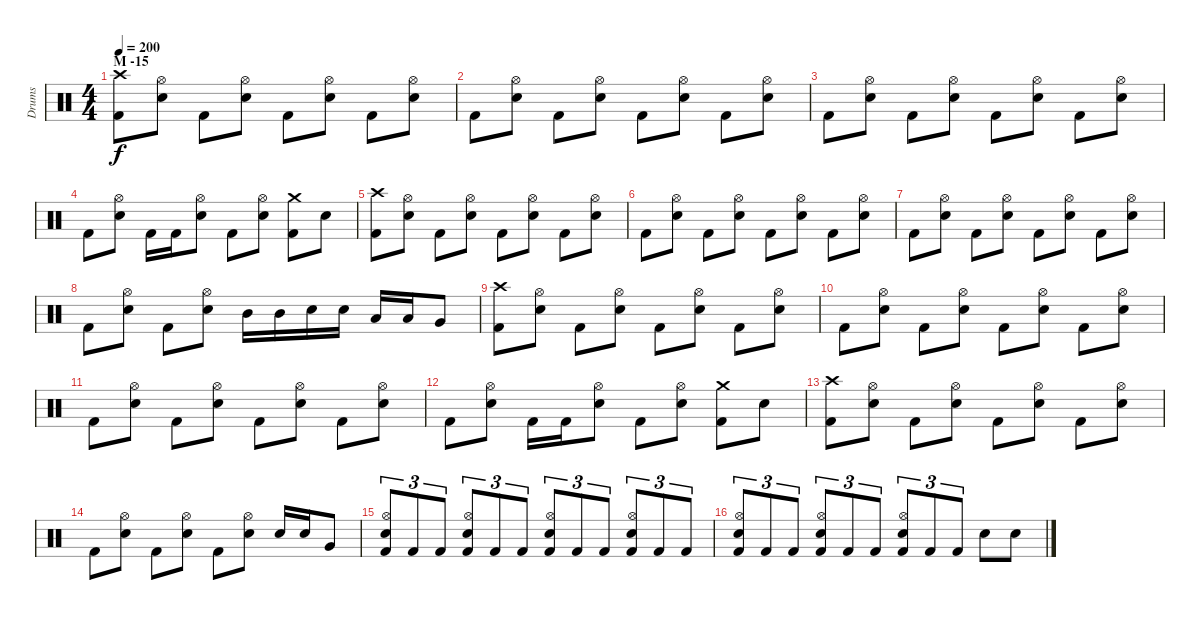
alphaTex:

\track ("Drums" "Drums") {instrument percussion}
\staff {score}
\articulation defaults
\ts (4 4)
\section ("" "M -15")
\tempo 200
\clef neutral
\ks c
("Crash high (hit)" "Kick (hit) 2").8{dy f} ("Hi-Hat (open)" "Snare (hit) 2").8 "Kick (hit) 2".8 ("Hi-Hat (open)" "Snare (hit) 2").8 "Kick (hit) 2".8 ("Hi-Hat (open)" "Snare (hit) 2").8 "Kick (hit) 2".8 ("Hi-Hat (open)" "Snare (hit) 2").8 |
"Kick (hit) 2".8 ("Hi-Hat (open)" "Snare (hit) 2").8 "Kick (hit) 2".8 ("Hi-Hat (open)" "Snare (hit) 2").8 "Kick (hit) 2".8 ("Hi-Hat (open)" "Snare (hit) 2").8 "Kick (hit) 2".8 ("Hi-Hat (open)" "Snare (hit) 2").8 |
"Kick (hit) 2".8 ("Hi-Hat (open)" "Snare (hit) 2").8 "Kick (hit) 2".8 ("Hi-Hat (open)" "Snare (hit) 2").8 "Kick (hit) 2".8 ("Hi-Hat (open)" "Snare (hit) 2").8 "Kick (hit) 2".8 ("Hi-Hat (open)" "Snare (hit) 2").8 |
"Kick (hit) 2".8 ("Hi-Hat (open)" "Snare (hit) 2").8 "Kick (hit) 2".16 "Kick (hit) 2".16 ("Hi-Hat (open)" "Snare (hit) 2").8 "Kick (hit) 2".8 ("Hi-Hat (open)" "Snare (hit) 2").8 ("Crash medium (hit)" "Kick (hit) 2").8 "Snare (hit) 2".8 |
("Crash high (hit)" "Kick (hit) 2").8 ("Hi-Hat (open)" "Snare (hit) 2").8 "Kick (hit) 2".8 ("Hi-Hat (open)" "Snare (hit) 2").8 "Kick (hit) 2".8 ("Hi-Hat (open)" "Snare (hit) 2").8 "Kick (hit) 2".8 ("Hi-Hat (open)" "Snare (hit) 2").8 |
"Kick (hit) 2".8 ("Hi-Hat (open)" "Snare (hit) 2").8 "Kick (hit) 2".8 ("Hi-Hat (open)" "Snare (hit) 2").8 "Kick (hit) 2".8 ("Hi-Hat (open)" "Snare (hit) 2").8 "Kick (hit) 2".8 ("Hi-Hat (open)" "Snare (hit) 2").8 |
"Kick (hit) 2".8 ("Hi-Hat (open)" "Snare (hit) 2").8 "Kick (hit) 2".8 ("Hi-Hat (open)" "Snare (hit) 2").8 "Kick (hit) 2".8 ("Hi-Hat (open)" "Snare (hit) 2").8 "Kick (hit) 2".8 ("Hi-Hat (open)" "Snare (hit) 2").8 |
"Kick (hit) 2".8 ("Hi-Hat (open)" "Snare (hit) 2").8 "Kick (hit) 2".8 ("Hi-Hat (open)" "Snare (hit) 2").8 "Mid Tom (hit)".16 "Mid Tom (hit)".16 "Snare (hit) 2".16 "Snare (hit) 2".16 "Low Tom (hit)".16 "Low Tom (hit)".16 "Very Low Tom (hit)".8 |
("Crash high (hit)" "Kick (hit) 2").8 ("Hi-Hat (open)" "Snare (hit) 2").8 "Kick (hit) 2".8 ("Hi-Hat (open)" "Snare (hit) 2").8 "Kick (hit) 2".8 ("Hi-Hat (open)" "Snare (hit) 2").8 "Kick (hit) 2".8 ("Hi-Hat (open)" "Snare (hit) 2").8 |
"Kick (hit) 2".8 ("Hi-Hat (open)" "Snare (hit) 2").8 "Kick (hit) 2".8 ("Hi-Hat (open)" "Snare (hit) 2").8 "Kick (hit) 2".8 ("Hi-Hat (open)" "Snare (hit) 2").8 "Kick (hit) 2".8 ("Hi-Hat (open)" "Snare (hit) 2").8 |
"Kick (hit) 2".8 ("Hi-Hat (open)" "Snare (hit) 2").8 "Kick (hit) 2".8 ("Hi-Hat (open)" "Snare (hit) 2").8 "Kick (hit) 2".8 ("Hi-Hat (open)" "Snare (hit) 2").8 "Kick (hit) 2".8 ("Hi-Hat (open)" "Snare (hit) 2").8 |
"Kick (hit) 2".8 ("Hi-Hat (open)" "Snare (hit) 2").8 "Kick (hit) 2".16 "Kick (hit) 2".16 ("Hi-Hat (open)" "Snare (hit) 2").8 "Kick (hit) 2".8 ("Hi-Hat (open)" "Snare (hit) 2").8 ("Crash medium (hit)" "Kick (hit) 2").8 "Snare (hit) 2".8 |
("Crash high (hit)" "Kick (hit) 2").8 ("Hi-Hat (open)" "Snare (hit) 2").8 "Kick (hit) 2".8 ("Hi-Hat (open)" "Snare (hit) 2").8 "Kick (hit) 2".8 ("Hi-Hat (open)" "Snare (hit) 2").8 "Kick (hit) 2".8 ("Hi-Hat (open)" "Snare (hit) 2").8 |
"Kick (hit) 2".8 ("Hi-Hat (open)" "Snare (hit) 2").8 "Kick (hit) 2".8 ("Hi-Hat (open)" "Snare (hit) 2").8 "Kick (hit) 2".8 ("Hi-Hat (open)" "Snare (hit) 2").8 "Snare (hit) 2".16 "Snare (hit) 2".16 "Very Low Tom (hit)".8 |
("Hi-Hat (open)" "Snare (hit) 2" "Kick (hit) 2").8{tu (3 2)} "Kick (hit) 2".8{tu (3 2)} "Kick (hit) 2".8{tu (3 2)} ("Hi-Hat (open)" "Snare (hit) 2" "Kick (hit) 2").8{tu (3 2)} "Kick (hit) 2".8{tu (3 2)} "Kick (hit) 2".8{tu (3 2)} ("Hi-Hat (open)" "Snare (hit) 2" "Kick (hit) 2").8{tu (3 2)} "Kick (hit) 2".8{tu (3 2)} "Kick (hit) 2".8{tu (3 2)} ("Hi-Hat (open)" "Snare (hit) 2" "Kick (hit) 2").8{tu (3 2)} "Kick (hit) 2".8{tu (3 2)} "Kick (hit) 2".8{tu (3 2)} |
("Hi-Hat (open)" "Snare (hit) 2" "Kick (hit) 2").8{tu (3 2)} "Kick (hit) 2".8{tu (3 2)} "Kick (hit) 2".8{tu (3 2)} ("Hi-Hat (open)" "Snare (hit) 2" "Kick (hit) 2").8{tu (3 2)} "Kick (hit) 2".8{tu (3 2)} "Kick (hit) 2".8{tu (3 2)} ("Hi-Hat (open)" "Snare (hit) 2" "Kick (hit) 2").8{tu (3 2)} "Kick (hit) 2".8{tu (3 2)} "Kick (hit) 2".8{tu (3 2)} "Snare (hit) 2".8 "Snare (hit) 2".8
